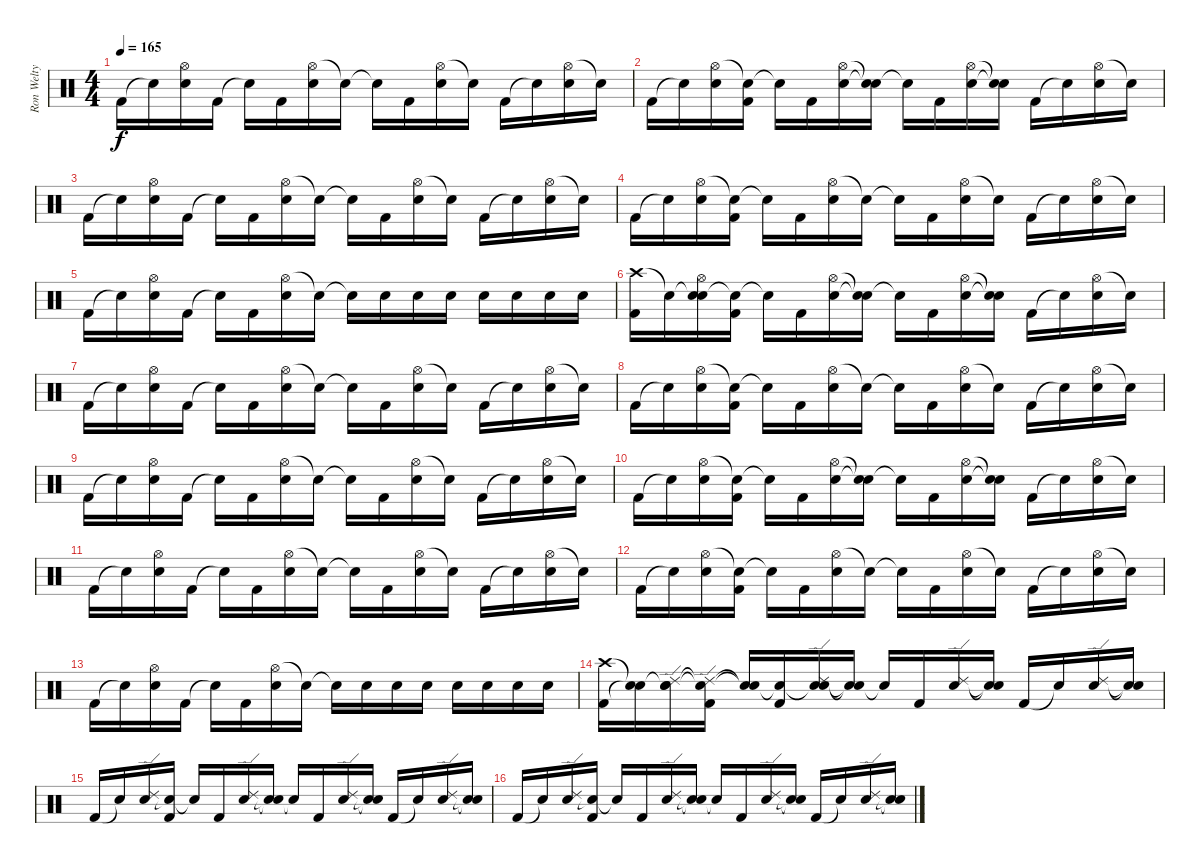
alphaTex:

\track ("Ron Welty" "Ron Welty") {instrument percussion}
\staff {score}
\articulation defaults
\ts (4 4)
\tempo 165
\clef neutral
\ks c "Kick (hit) 2".16{dy f} "Snare (hit)"{t}.16
("Hi-Hat (open)" "Electric Snare (hit)").16 "Kick (hit) 2".16 "Snare (hit)"{t}.16 "Kick (hit) 2".16 ("Hi-Hat (open)" "Electric Snare (hit)").16 "Snare (hit)"{t}.16 "Snare (hit)"{t}.16 "Kick (hit) 2".16 ("Hi-Hat (open)" "Electric Snare (hit)").16 "Snare (hit)"{t}.16 "Kick (hit) 2".16 "Snare (hit)"{t}.16 ("Hi-Hat (open)" "Electric Snare (hit)").16 "Snare (hit)"{t}.16 |
"Kick (hit) 2".16 "Snare (hit)"{t}.16 ("Hi-Hat (open)" "Electric Snare (hit)").16 ("Snare (hit)"{t} "Kick (hit) 2").16 "Snare (hit)"{t}.16 "Kick (hit) 2".16 ("Hi-Hat (open)" "Electric Snare (hit)").16 ("Snare (hit)"{t} "Snare (hit)"{t}).16 "Snare (hit)"{t}.16 "Kick (hit) 2".16 ("Hi-Hat (open)" "Electric Snare (hit)").16 ("Snare (hit)"{t} "Snare (hit)"{t}).16 "Kick (hit) 2".16 "Snare (hit)"{t}.16 ("Hi-Hat (open)" "Electric Snare (hit)").16 "Snare (hit)"{t}.16 |
"Kick (hit) 2".16 "Snare (hit)"{t}.16 ("Hi-Hat (open)" "Electric Snare (hit)").16 "Kick (hit) 2".16 "Snare (hit)"{t}.16 "Kick (hit) 2".16 ("Hi-Hat (open)" "Electric Snare (hit)").16 "Snare (hit)"{t}.16 "Snare (hit)"{t}.16 "Kick (hit) 2".16 ("Hi-Hat (open)" "Electric Snare (hit)").16 "Snare (hit)"{t}.16 "Kick (hit) 2".16 "Snare (hit)"{t}.16 ("Hi-Hat (open)" "Electric Snare (hit)").16 "Snare (hit)"{t}.16 |
"Kick (hit) 2".16 "Snare (hit)"{t}.16 ("Hi-Hat (open)" "Electric Snare (hit)").16 ("Snare (hit)"{t} "Kick (hit) 2").16 "Snare (hit)"{t}.16 "Kick (hit) 2".16 ("Hi-Hat (open)" "Electric Snare (hit)").16 "Snare (hit)"{t}.16 "Snare (hit)"{t}.16 "Kick (hit) 2".16 ("Hi-Hat (open)" "Electric Snare (hit)").16 "Snare (hit)"{t}.16 "Kick (hit) 2".16 "Snare (hit)"{t}.16 ("Hi-Hat (open)" "Electric Snare (hit)").16 "Snare (hit)"{t}.16 |
"Kick (hit) 2".16 "Snare (hit)"{t}.16 ("Hi-Hat (open)" "Electric Snare (hit)").16 "Kick (hit) 2".16 "Snare (hit)"{t}.16 "Kick (hit) 2".16 ("Hi-Hat (open)" "Electric Snare (hit)").16 "Snare (hit)"{t}.16 "Snare (hit)"{t}.16 "Snare (hit) 2".16 "Snare (hit) 2".16 "Snare (hit) 2".16 "Electric Snare (hit)".16 "Electric Snare (hit)".16 "Snare (hit) 2".16 "Snare (hit) 2".16 |
("Crash high (hit)" "Kick (hit) 2").16 "Snare (hit)"{t}.16 ("Snare (hit)"{t} "Hi-Hat (open)" "Electric Snare (hit)").16 ("Snare (hit)"{t} "Kick (hit) 2").16 "Snare (hit)"{t}.16 "Kick (hit) 2".16 ("Hi-Hat (open)" "Electric Snare (hit)").16 ("Snare (hit)"{t} "Snare (hit)"{t}).16 "Snare (hit)"{t}.16 "Kick (hit) 2".16 ("Hi-Hat (open)" "Electric Snare (hit)").16 ("Snare (hit)"{t} "Snare (hit)"{t}).16 "Kick (hit) 2".16 "Snare (hit)"{t}.16 ("Hi-Hat (open)" "Electric Snare (hit)").16 "Snare (hit)"{t}.16 |
"Kick (hit) 2".16 "Snare (hit)"{t}.16 ("Hi-Hat (open)" "Electric Snare (hit)").16 "Kick (hit) 2".16 "Snare (hit)"{t}.16 "Kick (hit) 2".16 ("Hi-Hat (open)" "Electric Snare (hit)").16 "Snare (hit)"{t}.16 "Snare (hit)"{t}.16 "Kick (hit) 2".16 ("Hi-Hat (open)" "Electric Snare (hit)").16 "Snare (hit)"{t}.16 "Kick (hit) 2".16 "Snare (hit)"{t}.16 ("Hi-Hat (open)" "Electric Snare (hit)").16 "Snare (hit)"{t}.16 |
"Kick (hit) 2".16 "Snare (hit)"{t}.16 ("Hi-Hat (open)" "Electric Snare (hit)").16 ("Snare (hit)"{t} "Kick (hit) 2").16 "Snare (hit)"{t}.16 "Kick (hit) 2".16 ("Hi-Hat (open)" "Electric Snare (hit)").16 "Snare (hit)"{t}.16 "Snare (hit)"{t}.16 "Kick (hit) 2".16 ("Hi-Hat (open)" "Electric Snare (hit)").16 "Snare (hit)"{t}.16 "Kick (hit) 2".16 "Snare (hit)"{t}.16 ("Hi-Hat (open)" "Electric Snare (hit)").16 "Snare (hit)"{t}.16 |
"Kick (hit) 2".16 "Snare (hit)"{t}.16 ("Hi-Hat (open)" "Electric Snare (hit)").16 "Kick (hit) 2".16 "Snare (hit)"{t}.16 "Kick (hit) 2".16 ("Hi-Hat (open)" "Electric Snare (hit)").16 "Snare (hit)"{t}.16 "Snare (hit)"{t}.16 "Kick (hit) 2".16 ("Hi-Hat (open)" "Electric Snare (hit)").16 "Snare (hit)"{t}.16 "Kick (hit) 2".16 "Snare (hit)"{t}.16 ("Hi-Hat (open)" "Electric Snare (hit)").16 "Snare (hit)"{t}.16 |
"Kick (hit) 2".16 "Snare (hit)"{t}.16 ("Hi-Hat (open)" "Electric Snare (hit)").16 ("Snare (hit)"{t} "Kick (hit) 2").16 "Snare (hit)"{t}.16 "Kick (hit) 2".16 ("Hi-Hat (open)" "Electric Snare (hit)").16 ("Snare (hit)"{t} "Snare (hit)"{t}).16 "Snare (hit)"{t}.16 "Kick (hit) 2".16 ("Hi-Hat (open)" "Electric Snare (hit)").16 ("Snare (hit)"{t} "Snare (hit)"{t}).16 "Kick (hit) 2".16 "Snare (hit)"{t}.16 ("Hi-Hat (open)" "Electric Snare (hit)").16 "Snare (hit)"{t}.16 |
"Kick (hit) 2".16 "Snare (hit)"{t}.16 ("Hi-Hat (open)" "Electric Snare (hit)").16 "Kick (hit) 2".16 "Snare (hit)"{t}.16 "Kick (hit) 2".16 ("Hi-Hat (open)" "Electric Snare (hit)").16 "Snare (hit)"{t}.16 "Snare (hit)"{t}.16 "Kick (hit) 2".16 ("Hi-Hat (open)" "Electric Snare (hit)").16 "Snare (hit)"{t}.16 "Kick (hit) 2".16 "Snare (hit)"{t}.16 ("Hi-Hat (open)" "Electric Snare (hit)").16 "Snare (hit)"{t}.16 |
"Kick (hit) 2".16 "Snare (hit)"{t}.16 ("Hi-Hat (open)" "Electric Snare (hit)").16 ("Snare (hit)"{t} "Kick (hit) 2").16 "Snare (hit)"{t}.16 "Kick (hit) 2".16 ("Hi-Hat (open)" "Electric Snare (hit)").16 "Snare (hit)"{t}.16 "Snare (hit)"{t}.16 "Kick (hit) 2".16 ("Hi-Hat (open)" "Electric Snare (hit)").16 "Snare (hit)"{t}.16 "Kick (hit) 2".16 "Snare (hit)"{t}.16 ("Hi-Hat (open)" "Electric Snare (hit)").16 "Snare (hit)"{t}.16 |
"Kick (hit) 2".16 "Snare (hit)"{t}.16 ("Hi-Hat (open)" "Electric Snare (hit)").16 "Kick (hit) 2".16 "Snare (hit)"{t}.16 "Kick (hit) 2".16 ("Hi-Hat (open)" "Electric Snare (hit)").16 "Snare (hit)"{t}.16 "Snare (hit)"{t}.16 "Snare (hit) 2".16 "Snare (hit) 2".16 "Snare (hit) 2".16 "Electric Snare (hit)".16 "Electric Snare (hit)".16 "Snare (hit) 2".16 "Snare (hit) 2".16 |
("Crash high (hit)" "Kick (hit) 2").16 ("Snare (hit)"{t} "Snare (hit)"{t}).16 ("Snare (hit)"{t} "Ride (edge) 2" "Electric Snare (hit)").16 ("Snare (hit)"{t} "Ride (edge) 2"{t} "Kick (hit) 2").16 ("Snare (hit)"{t} "Snare (hit)"{t}).16 ("Snare (hit)"{t} "Kick (hit) 2").16 ("Snare (hit)"{t} "Ride (edge) 2" "Electric Snare (hit)").16 ("Snare (hit)"{t} "Snare (hit)"{t}).16 "Snare (hit)"{t}.16 "Kick (hit) 2".16 ("Ride (edge) 2" "Electric Snare (hit)").16 ("Snare (hit)"{t} "Snare (hit)"{t}).16 "Kick (hit) 2".16 "Snare (hit)"{t}.16 ("Ride (edge) 2" "Electric Snare (hit)").16 ("Snare (hit)"{t} "Snare (hit)"{t}).16 |
"Kick (hit) 2".16 "Snare (hit)"{t}.16 ("Ride (edge) 2" "Electric Snare (hit)").16 ("Snare (hit)"{t} "Kick (hit) 2").16 "Snare (hit)"{t}.16 "Kick (hit) 2".16 ("Ride (edge) 2" "Electric Snare (hit)").16 ("Snare (hit)"{t} "Snare (hit)"{t}).16 "Snare (hit)"{t}.16 "Kick (hit) 2".16 ("Ride (edge) 2" "Electric Snare (hit)").16 ("Snare (hit)"{t} "Snare (hit)"{t}).16 "Kick (hit) 2".16 "Snare (hit)"{t}.16 ("Ride (edge) 2" "Electric Snare (hit)").16 ("Snare (hit)"{t} "Snare (hit)"{t}).16 |
"Kick (hit) 2".16 "Snare (hit)"{t}.16 ("Ride (edge) 2" "Electric Snare (hit)").16 ("Snare (hit)"{t} "Kick (hit) 2").16 "Snare (hit)"{t}.16 "Kick (hit) 2".16 ("Ride (edge) 2" "Electric Snare (hit)").16 ("Snare (hit)"{t} "Snare (hit)"{t}).16 "Snare (hit)"{t}.16 "Kick (hit) 2".16 ("Ride (edge) 2" "Electric Snare (hit)").16 ("Snare (hit)"{t} "Snare (hit)"{t}).16 "Kick (hit) 2".16 "Snare (hit)"{t}.16 ("Ride (edge) 2" "Electric Snare (hit)").16 ("Snare (hit)"{t} "Snare (hit)"{t}).16
